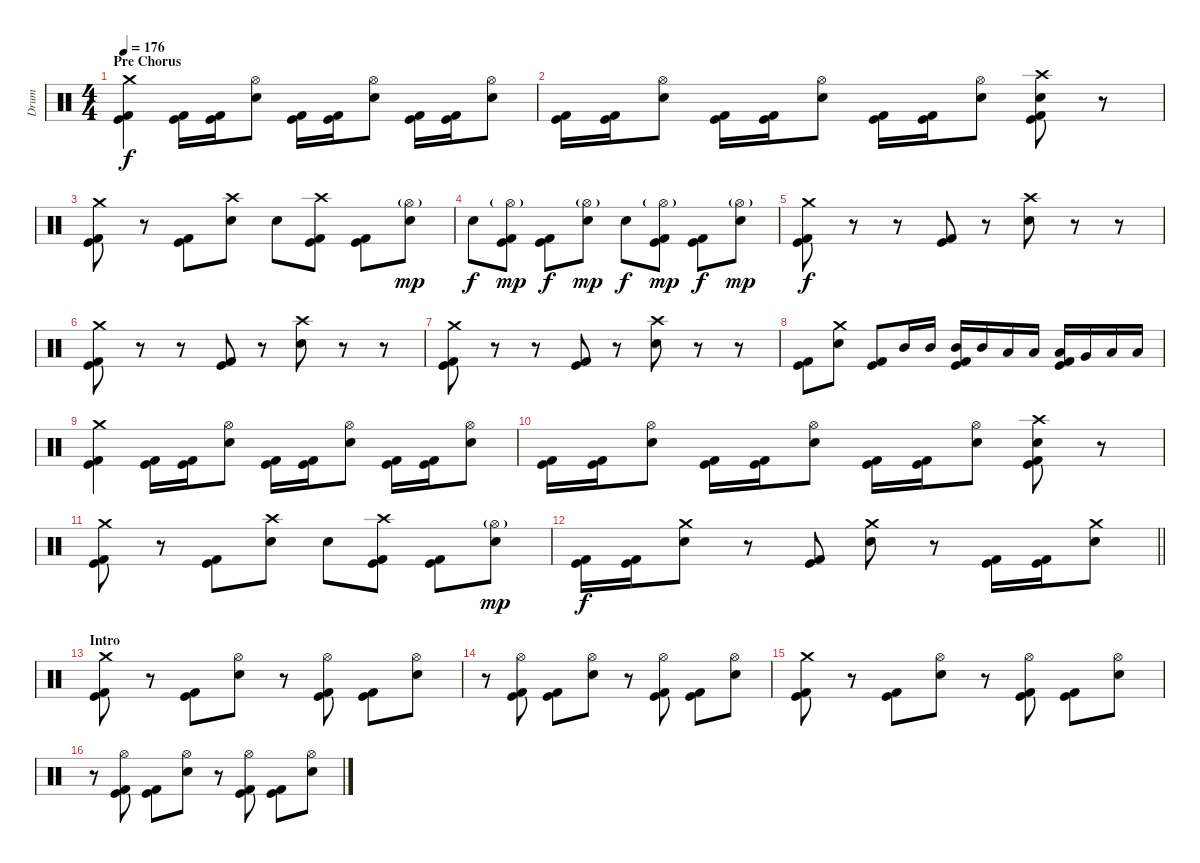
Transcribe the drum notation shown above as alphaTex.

\track ("Drum" "Drum") {instrument percussion}
\staff {score}
\articulation defaults
\ts (4 4)
\section ("" "Pre Chorus")
\tempo 176
\clef neutral
\ks c
("Crash medium (hit)" "Kick (hit)" "Kick (hit) 2").4{dy f} ("Kick (hit)" "Kick (hit) 2").16 ("Kick (hit)" "Kick (hit) 2").16 ("Hi-Hat (open)" "Electric Snare (hit)").8 ("Kick (hit)" "Kick (hit) 2").16 ("Kick (hit)" "Kick (hit) 2").16 ("Hi-Hat (open)" "Electric Snare (hit)").8 ("Kick (hit)" "Kick (hit) 2").16 ("Kick (hit)" "Kick (hit) 2").16 ("Hi-Hat (open)" "Electric Snare (hit)").8 |
("Kick (hit)" "Kick (hit) 2").16 ("Kick (hit)" "Kick (hit) 2").16 ("Hi-Hat (open)" "Electric Snare (hit)").8 ("Kick (hit)" "Kick (hit) 2").16 ("Kick (hit)" "Kick (hit) 2").16 ("Hi-Hat (open)" "Electric Snare (hit)").8 ("Kick (hit)" "Kick (hit) 2").16 ("Kick (hit)" "Kick (hit) 2").16 ("Hi-Hat (open)" "Electric Snare (hit)").8 ("Crash high (hit)" "Electric Snare (hit)" "Kick (hit)" "Kick (hit) 2").8 r.8 |
("Crash medium (hit)" "Kick (hit)" "Kick (hit) 2").8 r.8 ("Kick (hit)" "Kick (hit) 2").8 ("Crash high (hit)" "Electric Snare (hit)").8 "Electric Snare (hit)".8 ("Crash high (hit)" "Kick (hit)" "Kick (hit) 2").8 ("Kick (hit)" "Kick (hit) 2").8 ("Hi-Hat (open)"{g} "Electric Snare (hit)").8{dy mp} |
"Electric Snare (hit)".8{dy f} ("Hi-Hat (open)"{g} "Kick (hit)" "Kick (hit) 2").8{dy mp} ("Kick (hit)" "Kick (hit) 2").8{dy f} ("Hi-Hat (open)"{g} "Electric Snare (hit)").8{dy mp} "Electric Snare (hit)".8{dy f} ("Hi-Hat (open)"{g} "Kick (hit)" "Kick (hit) 2").8{dy mp} ("Kick (hit)" "Kick (hit) 2").8{dy f} ("Hi-Hat (open)"{g} "Electric Snare (hit)").8{dy mp} |
("Crash medium (hit)" "Kick (hit)" "Kick (hit) 2").8{dy f} r.8 r.8 ("Kick (hit)" "Kick (hit) 2").8 r.8 ("Crash high (hit)" "Electric Snare (hit)").8 r.8 r.8 |
("Crash medium (hit)" "Kick (hit)" "Kick (hit) 2").8 r.8 r.8 ("Kick (hit)" "Kick (hit) 2").8 r.8 ("Crash high (hit)" "Electric Snare (hit)").8 r.8 r.8 |
("Crash medium (hit)" "Kick (hit)" "Kick (hit) 2").8 r.8 r.8 ("Kick (hit)" "Kick (hit) 2").8 r.8 ("Crash high (hit)" "Electric Snare (hit)").8 r.8 r.8 |
("Kick (hit)" "Kick (hit) 2").8 ("Crash medium (hit)" "Electric Snare (hit)").8 ("Kick (hit)" "Kick (hit) 2").8 "Mid Tom (hit)".16 "Mid Tom (hit)".16 ("Mid Tom (hit)" "Kick (hit)" "Kick (hit) 2").16 "Mid Tom (hit)".16 "Low Tom (hit)".16 "Low Tom (hit)".16 ("Low Tom (hit)" "Kick (hit)" "Kick (hit) 2").16 "Very Low Tom (hit)".16 "Low Floor Tom (hit)".16 "Low Floor Tom (hit)".16 |
("Crash medium (hit)" "Kick (hit)" "Kick (hit) 2").4 ("Kick (hit)" "Kick (hit) 2").16 ("Kick (hit)" "Kick (hit) 2").16 ("Hi-Hat (open)" "Electric Snare (hit)").8 ("Kick (hit)" "Kick (hit) 2").16 ("Kick (hit)" "Kick (hit) 2").16 ("Hi-Hat (open)" "Electric Snare (hit)").8 ("Kick (hit)" "Kick (hit) 2").16 ("Kick (hit)" "Kick (hit) 2").16 ("Hi-Hat (open)" "Electric Snare (hit)").8 |
("Kick (hit)" "Kick (hit) 2").16 ("Kick (hit)" "Kick (hit) 2").16 ("Hi-Hat (open)" "Electric Snare (hit)").8 ("Kick (hit)" "Kick (hit) 2").16 ("Kick (hit)" "Kick (hit) 2").16 ("Hi-Hat (open)" "Electric Snare (hit)").8 ("Kick (hit)" "Kick (hit) 2").16 ("Kick (hit)" "Kick (hit) 2").16 ("Hi-Hat (open)" "Electric Snare (hit)").8 ("Crash high (hit)" "Electric Snare (hit)" "Kick (hit)" "Kick (hit) 2").8 r.8 |
("Crash medium (hit)" "Kick (hit)" "Kick (hit) 2").8 r.8 ("Kick (hit)" "Kick (hit) 2").8 ("Crash high (hit)" "Electric Snare (hit)").8 "Electric Snare (hit)".8 ("Crash high (hit)" "Kick (hit)" "Kick (hit) 2").8 ("Kick (hit)" "Kick (hit) 2").8 ("Hi-Hat (open)"{g} "Electric Snare (hit)").8{dy mp} |
\barLineRight lightlight
("Kick (hit)" "Kick (hit) 2").16{dy f} ("Kick (hit)" "Kick (hit) 2").16 ("Crash medium (hit)" "Electric Snare (hit)").8 r.8 ("Kick (hit)" "Kick (hit) 2").8 ("Crash medium (hit)" "Electric Snare (hit)").8 r.8 ("Kick (hit)" "Kick (hit) 2").16 ("Kick (hit)" "Kick (hit) 2").16 ("Crash medium (hit)" "Electric Snare (hit)").8 |
\section ("" "Intro")
("Crash medium (hit)" "Kick (hit)" "Kick (hit) 2").8 r.8 ("Kick (hit)" "Kick (hit) 2").8 ("Hi-Hat (open)" "Electric Snare (hit)").8 r.8 ("Hi-Hat (open)" "Kick (hit)" "Kick (hit) 2").8 ("Kick (hit)" "Kick (hit) 2").8 ("Hi-Hat (open)" "Electric Snare (hit)").8 |
r.8 ("Hi-Hat (open)" "Kick (hit)" "Kick (hit) 2").8 ("Kick (hit)" "Kick (hit) 2").8 ("Hi-Hat (open)" "Electric Snare (hit)").8 r.8 ("Hi-Hat (open)" "Kick (hit)" "Kick (hit) 2").8 ("Kick (hit)" "Kick (hit) 2").8 ("Hi-Hat (open)" "Electric Snare (hit)").8 |
("Crash medium (hit)" "Kick (hit)" "Kick (hit) 2").8 r.8 ("Kick (hit)" "Kick (hit) 2").8 ("Hi-Hat (open)" "Electric Snare (hit)").8 r.8 ("Hi-Hat (open)" "Kick (hit)" "Kick (hit) 2").8 ("Kick (hit)" "Kick (hit) 2").8 ("Hi-Hat (open)" "Electric Snare (hit)").8 |
r.8 ("Hi-Hat (open)" "Kick (hit)" "Kick (hit) 2").8 ("Kick (hit)" "Kick (hit) 2").8 ("Hi-Hat (open)" "Electric Snare (hit)").8 r.8 ("Hi-Hat (open)" "Kick (hit)" "Kick (hit) 2").8 ("Kick (hit)" "Kick (hit) 2").8 ("Hi-Hat (open)" "Electric Snare (hit)").8
